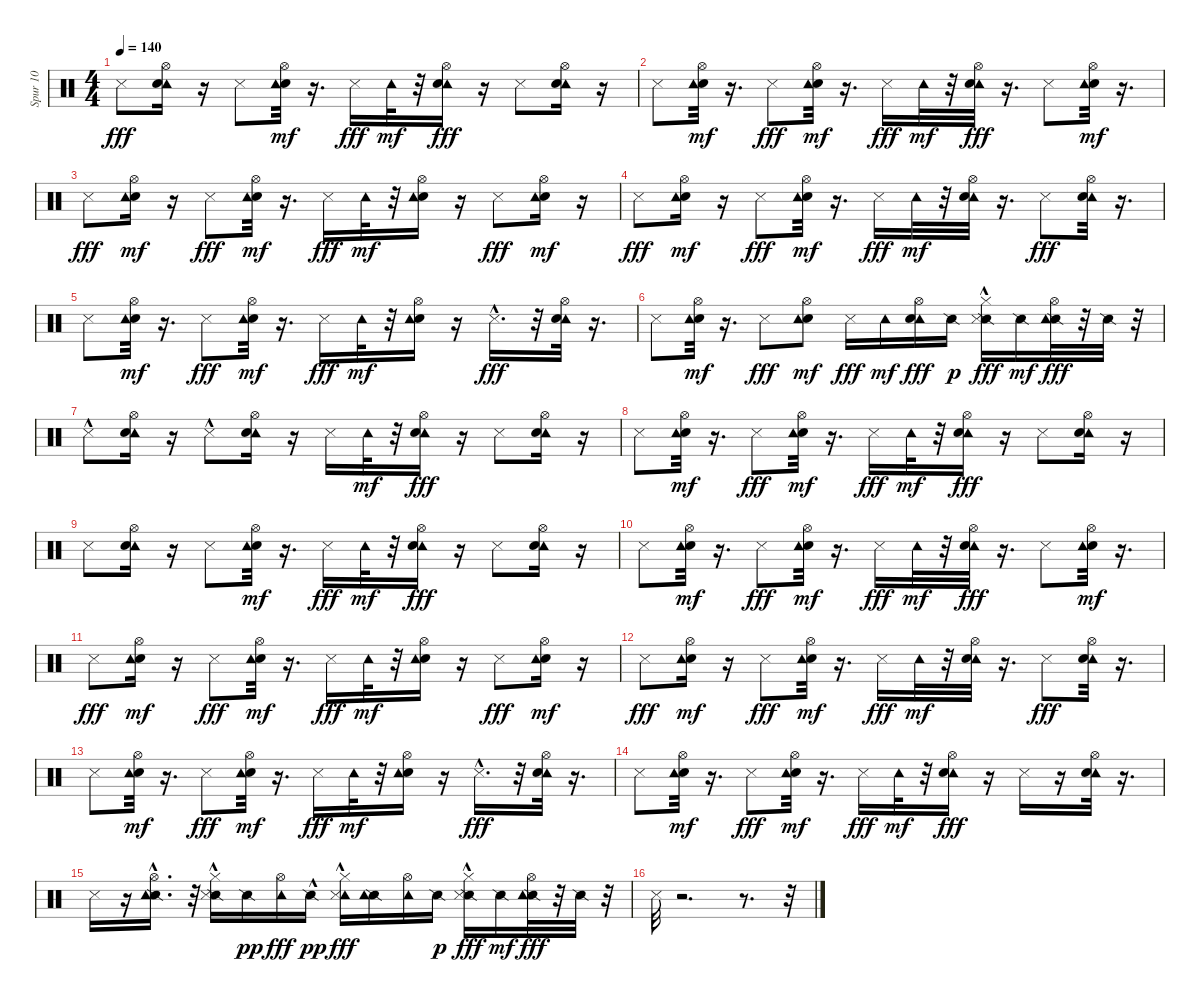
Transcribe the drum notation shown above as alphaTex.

\track ("Spur 10" "Spur 10") {instrument percussion}
\staff {score}
\articulation defaults
\ts (4 4)
\tempo 140
\clef neutral
\ks c "Metronome (hit)".8{dy fff}
("Tambourine (hit)" "Hi-Hat (open)" "Snare (hit)").16 r.16 "Metronome (hit)".8 ("Hi-Hat (open)" "Snare (hit)" "Tambourine (hit)").32{dy mf} r.16{d} "Metronome (hit)".16{dy fff} "Tambourine (hit)".32{dy mf} r.32 ("Tambourine (hit)" "Hi-Hat (open)" "Snare (hit)").16{dy fff} r.16 "Metronome (hit)".8 ("Tambourine (hit)" "Hi-Hat (open)" "Snare (hit)").16 r.16 |
"Metronome (hit)".8 ("Snare (hit)" "Hi-Hat (open)" "Tambourine (hit)").32{dy mf} r.16{d} "Metronome (hit)".8{dy fff} ("Hi-Hat (open)" "Snare (hit)" "Tambourine (hit)").32{dy mf} r.16{d} "Metronome (hit)".16{dy fff} "Tambourine (hit)".32{dy mf} r.32 ("Tambourine (hit)" "Hi-Hat (open)" "Snare (hit)").32{dy fff} r.16{d} "Metronome (hit)".8 ("Hi-Hat (open)" "Snare (hit)" "Tambourine (hit)").32{dy mf} r.16{d} |
"Metronome (hit)".8{dy fff} ("Hi-Hat (open)" "Snare (hit)" "Tambourine (hit)").16{dy mf} r.16 "Metronome (hit)".8{dy fff} ("Hi-Hat (open)" "Snare (hit)" "Tambourine (hit)").32{dy mf} r.16{d} "Metronome (hit)".16{dy fff} "Tambourine (hit)".32{dy mf} r.32 ("Hi-Hat (open)" "Snare (hit)" "Tambourine (hit)").16 r.16 "Metronome (hit)".8{dy fff} ("Snare (hit)" "Hi-Hat (open)" "Tambourine (hit)").16{dy mf} r.16 |
"Metronome (hit)".8{dy fff} ("Hi-Hat (open)" "Snare (hit)" "Tambourine (hit)").16{dy mf} r.16 "Metronome (hit)".8{dy fff} ("Hi-Hat (open)" "Snare (hit)" "Tambourine (hit)").32{dy mf} r.16{d} "Metronome (hit)".16{dy fff} "Tambourine (hit)".32{dy mf} r.32 ("Tambourine (hit)" "Snare (hit)" "Hi-Hat (open)").32 r.16{d} "Metronome (hit)".8{dy fff} ("Tambourine (hit)" "Hi-Hat (open)" "Snare (hit)").32 r.16{d} |
"Metronome (hit)".8 ("Hi-Hat (open)" "Snare (hit)" "Tambourine (hit)").32{dy mf} r.16{d} "Metronome (hit)".8{dy fff} ("Hi-Hat (open)" "Snare (hit)" "Tambourine (hit)").32{dy mf} r.16{d} "Metronome (hit)".16{dy fff} "Tambourine (hit)".32{dy mf} r.32 ("Hi-Hat (open)" "Snare (hit)" "Tambourine (hit)").16 r.16 "Metronome (hit)"{hac}.16{d dy fff} r.32 ("Tambourine (hit)" "Hi-Hat (open)" "Snare (hit)").32 r.16{d} |
"Metronome (hit)".8 ("Hi-Hat (open)" "Snare (hit)" "Tambourine (hit)").32{dy mf} r.16{d} "Metronome (hit)".8{dy fff} ("Hi-Hat (open)" "Snare (hit)" "Tambourine (hit)").8{dy mf} "Metronome (hit)".16{dy fff} "Tambourine (hit)".16{dy mf} ("Tambourine (hit)" "Hi-Hat (open)" "Snare (hit)").16{dy fff} "Snare (side stick) 2".16{dy p} ("Snare (side stick) 2" "Hi-Hat (closed)"{hac} "Metronome (hit)").16{dy fff} "Snare (side stick) 2".16{dy mf} ("Hi-Hat (open)" "Snare (side stick) 2" "Tambourine (hit)").32{dy fff} r.32 "Snare (side stick) 2".32 r.32 |
"Metronome (hit)"{hac}.8 ("Tambourine (hit)" "Hi-Hat (open)" "Snare (hit)").16 r.16 "Metronome (hit)"{hac}.8 ("Tambourine (hit)" "Hi-Hat (open)" "Snare (hit)").16 r.16 "Metronome (hit)".16 "Tambourine (hit)".32{dy mf} r.32 ("Tambourine (hit)" "Hi-Hat (open)" "Snare (hit)").16{dy fff} r.16 "Metronome (hit)".8 ("Tambourine (hit)" "Hi-Hat (open)" "Snare (hit)").16 r.16 |
"Metronome (hit)".8 ("Hi-Hat (open)" "Snare (hit)" "Tambourine (hit)").32{dy mf} r.16{d} "Metronome (hit)".8{dy fff} ("Hi-Hat (open)" "Snare (hit)" "Tambourine (hit)").32{dy mf} r.16{d} "Metronome (hit)".16{dy fff} "Tambourine (hit)".32{dy mf} r.32 ("Tambourine (hit)" "Hi-Hat (open)" "Snare (hit)").16{dy fff} r.16 "Metronome (hit)".8 ("Tambourine (hit)" "Hi-Hat (open)" "Snare (hit)").16 r.16 |
"Metronome (hit)".8 ("Tambourine (hit)" "Hi-Hat (open)" "Snare (hit)").16 r.16 "Metronome (hit)".8 ("Hi-Hat (open)" "Snare (hit)" "Tambourine (hit)").32{dy mf} r.16{d} "Metronome (hit)".16{dy fff} "Tambourine (hit)".32{dy mf} r.32 ("Tambourine (hit)" "Hi-Hat (open)" "Snare (hit)").16{dy fff} r.16 "Metronome (hit)".8 ("Tambourine (hit)" "Hi-Hat (open)" "Snare (hit)").16 r.16 |
"Metronome (hit)".8 ("Snare (hit)" "Hi-Hat (open)" "Tambourine (hit)").32{dy mf} r.16{d} "Metronome (hit)".8{dy fff} ("Hi-Hat (open)" "Snare (hit)" "Tambourine (hit)").32{dy mf} r.16{d} "Metronome (hit)".16{dy fff} "Tambourine (hit)".32{dy mf} r.32 ("Tambourine (hit)" "Hi-Hat (open)" "Snare (hit)").32{dy fff} r.16{d} "Metronome (hit)".8 ("Hi-Hat (open)" "Snare (hit)" "Tambourine (hit)").32{dy mf} r.16{d} |
"Metronome (hit)".8{dy fff} ("Hi-Hat (open)" "Snare (hit)" "Tambourine (hit)").16{dy mf} r.16 "Metronome (hit)".8{dy fff} ("Hi-Hat (open)" "Snare (hit)" "Tambourine (hit)").32{dy mf} r.16{d} "Metronome (hit)".16{dy fff} "Tambourine (hit)".32{dy mf} r.32 ("Hi-Hat (open)" "Snare (hit)" "Tambourine (hit)").16 r.16 "Metronome (hit)".8{dy fff} ("Snare (hit)" "Hi-Hat (open)" "Tambourine (hit)").16{dy mf} r.16 |
"Metronome (hit)".8{dy fff} ("Hi-Hat (open)" "Snare (hit)" "Tambourine (hit)").16{dy mf} r.16 "Metronome (hit)".8{dy fff} ("Hi-Hat (open)" "Snare (hit)" "Tambourine (hit)").32{dy mf} r.16{d} "Metronome (hit)".16{dy fff} "Tambourine (hit)".32{dy mf} r.32 ("Tambourine (hit)" "Snare (hit)" "Hi-Hat (open)").32 r.16{d} "Metronome (hit)".8{dy fff} ("Tambourine (hit)" "Hi-Hat (open)" "Snare (hit)").32 r.16{d} |
"Metronome (hit)".8 ("Hi-Hat (open)" "Snare (hit)" "Tambourine (hit)").32{dy mf} r.16{d} "Metronome (hit)".8{dy fff} ("Hi-Hat (open)" "Snare (hit)" "Tambourine (hit)").32{dy mf} r.16{d} "Metronome (hit)".16{dy fff} "Tambourine (hit)".32{dy mf} r.32 ("Hi-Hat (open)" "Snare (hit)" "Tambourine (hit)").16 r.16 "Metronome (hit)"{hac}.16{d dy fff} r.32 ("Tambourine (hit)" "Hi-Hat (open)" "Snare (hit)").32 r.16{d} |
"Metronome (hit)".8 ("Hi-Hat (open)" "Snare (hit)" "Tambourine (hit)").32{dy mf} r.16{d} "Metronome (hit)".8{dy fff} ("Hi-Hat (open)" "Snare (hit)" "Tambourine (hit)").32{dy mf} r.16{d} "Metronome (hit)".16{dy fff} "Tambourine (hit)".32{dy mf} r.32 ("Tambourine (hit)" "Hi-Hat (open)" "Snare (hit)").16{dy fff} r.16 "Metronome (hit)".16 r.16 ("Tambourine (hit)" "Hi-Hat (open)" "Snare (hit)").32 r.16{d} |
"Metronome (hit)".16 r.16 ("Snare (side stick) 2"{hac} "Hi-Hat (open)" "Tambourine (hit)").16{d} r.32 ("Snare (side stick) 2" "Hi-Hat (closed)"{hac} "Metronome (hit)"{hac}).16 "Snare (side stick) 2".16{dy pp} ("Hi-Hat (open)" "Tambourine (hit)").16{dy fff} "Snare (side stick) 2"{hac}.16{dy pp} ("Hi-Hat (closed)" "Tambourine (hit)" "Metronome (hit)"{hac}).16{dy fff} ("Snare (side stick) 2" "Tambourine (hit)").16 ("Hi-Hat (open)" "Tambourine (hit)").16 "Snare (side stick) 2".16{dy p} ("Snare (side stick) 2" "Hi-Hat (closed)"{hac} "Metronome (hit)").16{dy fff} "Snare (side stick) 2".16{dy mf} ("Hi-Hat (open)" "Snare (side stick) 2" "Tambourine (hit)").32{dy fff} r.32 "Snare (side stick) 2".32 r.32 |
"Metronome (hit)".32 r.2{d} r.8{d} r.32
